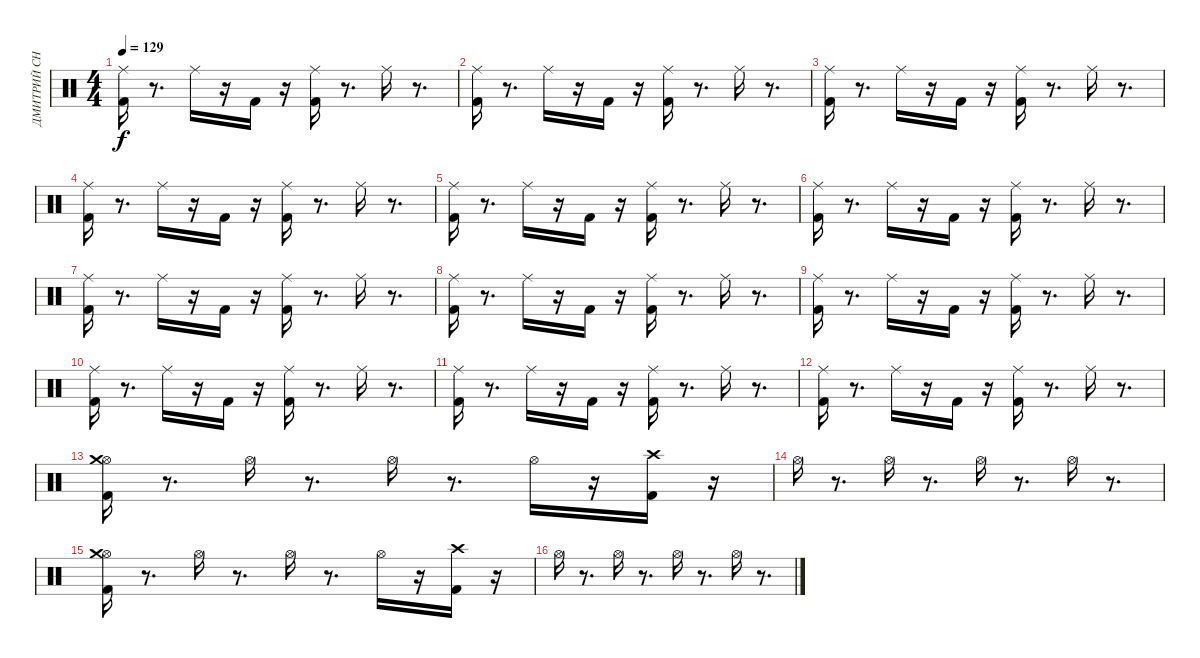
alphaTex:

\track ("ДМИТРИЙ СНЭЙК" "ДМИТРИЙ СН") {instrument percussion}
\staff {score}
\articulation defaults
\ts (4 4)
\tempo 129
\clef neutral
\ks c
("Kick (hit) 2" "Ride (middle)").16{dy f} r.8{d} "Ride (middle)".16 r.16 "Kick (hit) 2".16 r.16 ("Kick (hit) 2" "Ride (middle)").16 r.8{d} "Ride (middle)".16 r.8{d} |
("Kick (hit) 2" "Ride (middle)").16 r.8{d} "Ride (middle)".16 r.16 "Kick (hit) 2".16 r.16 ("Kick (hit) 2" "Ride (middle)").16 r.8{d} "Ride (middle)".16 r.8{d} |
("Kick (hit) 2" "Ride (middle)").16 r.8{d} "Ride (middle)".16 r.16 "Kick (hit) 2".16 r.16 ("Kick (hit) 2" "Ride (middle)").16 r.8{d} "Ride (middle)".16 r.8{d} |
("Kick (hit) 2" "Ride (middle)").16 r.8{d} "Ride (middle)".16 r.16 "Kick (hit) 2".16 r.16 ("Kick (hit) 2" "Ride (middle)").16 r.8{d} "Ride (middle)".16 r.8{d} |
("Kick (hit) 2" "Ride (middle)").16 r.8{d} "Ride (middle)".16 r.16 "Kick (hit) 2".16 r.16 ("Kick (hit) 2" "Ride (middle)").16 r.8{d} "Ride (middle)".16 r.8{d} |
("Kick (hit) 2" "Ride (middle)").16 r.8{d} "Ride (middle)".16 r.16 "Kick (hit) 2".16 r.16 ("Kick (hit) 2" "Ride (middle)").16 r.8{d} "Ride (middle)".16 r.8{d} |
("Kick (hit) 2" "Ride (middle)").16 r.8{d} "Ride (middle)".16 r.16 "Kick (hit) 2".16 r.16 ("Kick (hit) 2" "Ride (middle)").16 r.8{d} "Ride (middle)".16 r.8{d} |
("Ride (middle)" "Kick (hit) 2").16 r.8{d} "Ride (middle)".16 r.16 "Kick (hit) 2".16 r.16 ("Kick (hit) 2" "Ride (middle)").16 r.8{d} "Ride (middle)".16 r.8{d} |
("Kick (hit) 2" "Ride (middle)").16 r.8{d} "Ride (middle)".16 r.16 "Kick (hit) 2".16 r.16 ("Ride (middle)" "Kick (hit) 2").16 r.8{d} "Ride (middle)".16 r.8{d} |
("Kick (hit) 2" "Ride (middle)").16 r.8{d} "Ride (middle)".16 r.16 "Kick (hit) 2".16 r.16 ("Ride (middle)" "Kick (hit) 2").16 r.8{d} "Ride (middle)".16 r.8{d} |
("Kick (hit) 2" "Ride (middle)").16 r.8{d} "Ride (middle)".16 r.16 "Kick (hit) 2".16 r.16 ("Ride (middle)" "Kick (hit) 2").16 r.8{d} "Ride (middle)".16 r.8{d} |
("Ride (middle)" "Kick (hit) 2").16 r.8{d} "Ride (middle)".16 r.16 "Kick (hit) 2".16 r.16 ("Ride (middle)" "Kick (hit) 2").16 r.8{d} "Ride (middle)".16 r.8{d} |
("Hi-Hat (open)" "Crash medium (hit)" "Kick (hit) 2").16 r.8{d} "Hi-Hat (open)".16 r.8{d} "Hi-Hat (open)".16 r.8{d} "Hi-Hat (open)".16 r.16 ("Crash high (hit)" "Kick (hit) 2").16 r.16 |
"Hi-Hat (open)".16 r.8{d} "Hi-Hat (open)".16 r.8{d} "Hi-Hat (open)".16 r.8{d} "Hi-Hat (open)".16 r.8{d} |
("Hi-Hat (open)" "Crash medium (hit)" "Kick (hit) 2").16 r.8{d} "Hi-Hat (open)".16 r.8{d} "Hi-Hat (open)".16 r.8{d} "Hi-Hat (open)".16 r.16 ("Crash high (hit)" "Kick (hit) 2").16 r.16 |
"Hi-Hat (open)".16 r.8{d} "Hi-Hat (open)".16 r.8{d} "Hi-Hat (open)".16 r.8{d} "Hi-Hat (open)".16 r.8{d}
